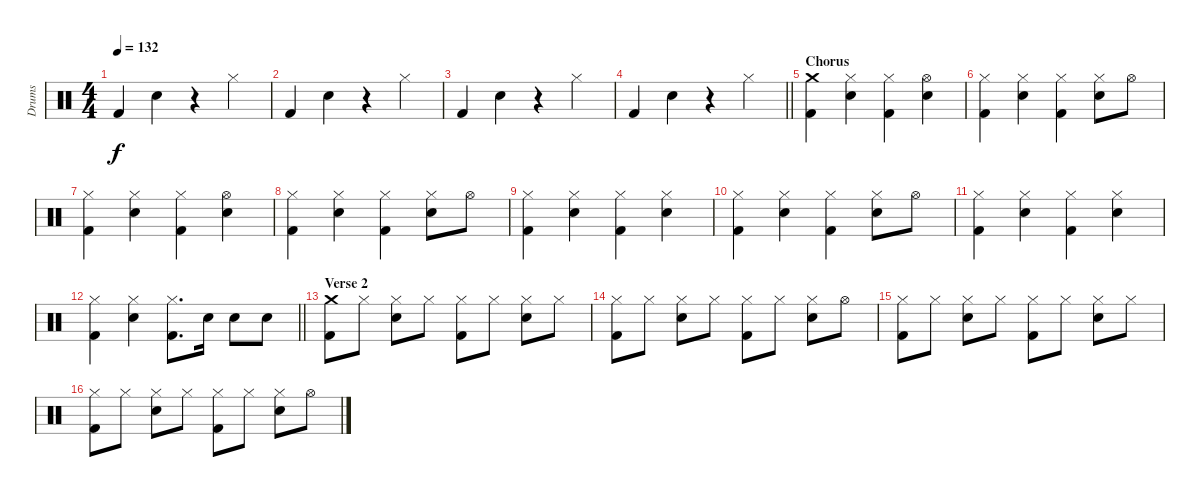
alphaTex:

\track ("Drums" "Drums") {instrument percussion}
\staff {score}
\articulation defaults
\ts (4 4)
\tempo 132
\clef neutral
\ks c "Kick (hit) 2".4{dy f} "Electric Snare (hit)".4
r.4 "Hi-Hat (closed)".4 |
"Kick (hit) 2".4 "Electric Snare (hit)".4 r.4 "Hi-Hat (closed)".4 |
"Kick (hit) 2".4 "Electric Snare (hit)".4 r.4 "Hi-Hat (closed)".4 |
\barLineRight lightlight "Kick (hit) 2".4 "Electric Snare (hit)".4
r.4 "Hi-Hat (closed)".4 |
\section ("" "Chorus")
("Crash medium (hit)" "Kick (hit) 2").4 ("Hi-Hat (closed)" "Electric Snare (hit)").4 ("Hi-Hat (closed)" "Kick (hit) 2").4 ("Hi-Hat (open)" "Electric Snare (hit)").4 |
("Hi-Hat (closed)" "Kick (hit) 2").4 ("Hi-Hat (closed)" "Electric Snare (hit)").4 ("Hi-Hat (closed)" "Kick (hit) 2").4 ("Hi-Hat (closed)" "Electric Snare (hit)").8 "Hi-Hat (open)".8 |
("Hi-Hat (closed)" "Kick (hit) 2").4 ("Hi-Hat (closed)" "Electric Snare (hit)").4 ("Hi-Hat (closed)" "Kick (hit) 2").4 ("Hi-Hat (open)" "Electric Snare (hit)").4 |
("Hi-Hat (closed)" "Kick (hit) 2").4 ("Hi-Hat (closed)" "Electric Snare (hit)").4 ("Hi-Hat (closed)" "Kick (hit) 2").4 ("Hi-Hat (closed)" "Electric Snare (hit)").8 "Hi-Hat (open)".8 |
("Hi-Hat (closed)" "Kick (hit) 2").4 ("Hi-Hat (closed)" "Electric Snare (hit)").4 ("Hi-Hat (closed)" "Kick (hit) 2").4 ("Hi-Hat (closed)" "Electric Snare (hit)").4 |
("Hi-Hat (closed)" "Kick (hit) 2").4 ("Hi-Hat (closed)" "Electric Snare (hit)").4 ("Hi-Hat (closed)" "Kick (hit) 2").4 ("Hi-Hat (closed)" "Electric Snare (hit)").8 "Hi-Hat (open)".8 |
("Hi-Hat (closed)" "Kick (hit) 2").4 ("Hi-Hat (closed)" "Electric Snare (hit)").4 ("Hi-Hat (closed)" "Kick (hit) 2").4 ("Hi-Hat (closed)" "Electric Snare (hit)").4 |
\barLineRight lightlight
("Hi-Hat (closed)" "Kick (hit) 2").4 ("Hi-Hat (closed)" "Electric Snare (hit)").4 ("Hi-Hat (closed)" "Kick (hit) 2").8{d} "Electric Snare (hit)".16 "Electric Snare (hit)".8 "Electric Snare (hit)".8 |
\section ("" "Verse 2")
("Crash medium (hit)" "Kick (hit) 2").8 "Hi-Hat (closed)".8 ("Hi-Hat (closed)" "Electric Snare (hit)").8 "Hi-Hat (closed)".8 ("Hi-Hat (closed)" "Kick (hit) 2").8 "Hi-Hat (closed)".8 ("Hi-Hat (closed)" "Electric Snare (hit)").8 "Hi-Hat (closed)".8 |
("Hi-Hat (closed)" "Kick (hit) 2").8 "Hi-Hat (closed)".8 ("Hi-Hat (closed)" "Electric Snare (hit)").8 "Hi-Hat (closed)".8 ("Hi-Hat (closed)" "Kick (hit) 2").8 "Hi-Hat (closed)".8 ("Hi-Hat (closed)" "Electric Snare (hit)").8 "Hi-Hat (open)".8 |
("Hi-Hat (closed)" "Kick (hit) 2").8 "Hi-Hat (closed)".8 ("Hi-Hat (closed)" "Electric Snare (hit)").8 "Hi-Hat (closed)".8 ("Hi-Hat (closed)" "Kick (hit) 2").8 "Hi-Hat (closed)".8 ("Hi-Hat (closed)" "Electric Snare (hit)").8 "Hi-Hat (closed)".8 |
("Hi-Hat (closed)" "Kick (hit) 2").8 "Hi-Hat (closed)".8 ("Hi-Hat (closed)" "Electric Snare (hit)").8 "Hi-Hat (closed)".8 ("Hi-Hat (closed)" "Kick (hit) 2").8 "Hi-Hat (closed)".8 ("Hi-Hat (closed)" "Electric Snare (hit)").8 "Hi-Hat (open)".8
